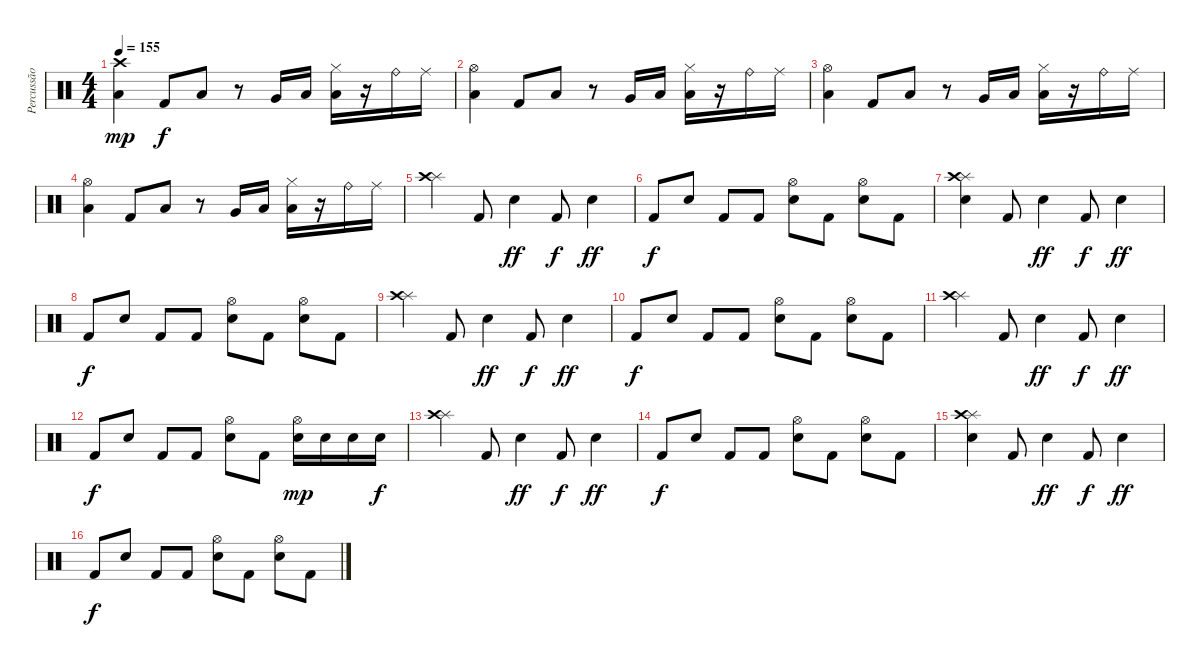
\track ("Percussão" "Percussão") {instrument percussion}
\staff {score}
\articulation defaults
\ts (4 4)
\tempo 155
\clef neutral
\ks c
("Crash high (hit)" "Low Tom (hit)").4{dy mp} "Kick (hit) 2".8{dy f} "Low Tom (hit)".8 r.8 "Very Low Tom (hit)".16 "Low Tom (hit)".16 ("Hi-Hat (closed)" "Low Tom (hit)").16 r.16 "Ride (bell)".16 "Ride (middle)".16 |
("Hi-Hat (open)" "Low Tom (hit)").4 "Kick (hit) 2".8 "Low Tom (hit)".8 r.8 "Very Low Tom (hit)".16 "Low Tom (hit)".16 ("Hi-Hat (closed)" "Low Tom (hit)").16 r.16 "Ride (bell)".16 "Ride (middle)".16 |
("Hi-Hat (open)" "Low Tom (hit)").4 "Kick (hit) 2".8 "Low Tom (hit)".8 r.8 "Very Low Tom (hit)".16 "Low Tom (hit)".16 ("Hi-Hat (closed)" "Low Tom (hit)").16 r.16 "Ride (bell)".16 "Ride (middle)".16 |
("Hi-Hat (open)" "Low Tom (hit)").4 "Kick (hit) 2".8 "Low Tom (hit)".8 r.8 "Very Low Tom (hit)".16 "Low Tom (hit)".16 ("Hi-Hat (closed)" "Low Tom (hit)").16 r.16 "Ride (bell)".16 "Ride (middle)".16 |
("Splash (hit)" "Crash high (hit)").4 "Kick (hit) 2".8 "Electric Snare (hit)".4{dy ff} "Kick (hit) 2".8{dy f} "Electric Snare (hit)".4{dy ff} |
"Kick (hit) 2".8{dy f} "Electric Snare (hit)".8 "Kick (hit) 2".8 "Kick (hit) 2".8 ("Hi-Hat (open)" "Electric Snare (hit)").8 "Kick (hit) 2".8 ("Hi-Hat (open)" "Electric Snare (hit)").8 "Kick (hit) 2".8 |
("Splash (hit)" "Crash high (hit)" "Electric Snare (hit)").4 "Kick (hit) 2".8 "Electric Snare (hit)".4{dy ff} "Kick (hit) 2".8{dy f} "Electric Snare (hit)".4{dy ff} |
"Kick (hit) 2".8{dy f} "Electric Snare (hit)".8 "Kick (hit) 2".8 "Kick (hit) 2".8 ("Hi-Hat (open)" "Electric Snare (hit)").8 "Kick (hit) 2".8 ("Hi-Hat (open)" "Electric Snare (hit)").8 "Kick (hit) 2".8 |
("Splash (hit)" "Crash high (hit)").4 "Kick (hit) 2".8 "Electric Snare (hit)".4{dy ff} "Kick (hit) 2".8{dy f} "Electric Snare (hit)".4{dy ff} |
"Kick (hit) 2".8{dy f} "Electric Snare (hit)".8 "Kick (hit) 2".8 "Kick (hit) 2".8 ("Hi-Hat (open)" "Electric Snare (hit)").8 "Kick (hit) 2".8 ("Hi-Hat (open)" "Electric Snare (hit)").8 "Kick (hit) 2".8 |
("Splash (hit)" "Crash high (hit)").4 "Kick (hit) 2".8 "Electric Snare (hit)".4{dy ff} "Kick (hit) 2".8{dy f} "Electric Snare (hit)".4{dy ff} |
"Kick (hit) 2".8{dy f} "Electric Snare (hit)".8 "Kick (hit) 2".8 "Kick (hit) 2".8 ("Hi-Hat (open)" "Electric Snare (hit)").8 "Kick (hit) 2".8 ("Hi-Hat (open)" "Electric Snare (hit)").16{dy mp} "Electric Snare (hit)".16 "Electric Snare (hit)".16 "Electric Snare (hit)".16{dy f} |
("Splash (hit)" "Crash high (hit)").4 "Kick (hit) 2".8 "Electric Snare (hit)".4{dy ff} "Kick (hit) 2".8{dy f} "Electric Snare (hit)".4{dy ff} |
"Kick (hit) 2".8{dy f} "Electric Snare (hit)".8 "Kick (hit) 2".8 "Kick (hit) 2".8 ("Hi-Hat (open)" "Electric Snare (hit)").8 "Kick (hit) 2".8 ("Hi-Hat (open)" "Electric Snare (hit)").8 "Kick (hit) 2".8 |
("Splash (hit)" "Crash high (hit)" "Electric Snare (hit)").4 "Kick (hit) 2".8 "Electric Snare (hit)".4{dy ff} "Kick (hit) 2".8{dy f} "Electric Snare (hit)".4{dy ff} |
"Kick (hit) 2".8{dy f} "Electric Snare (hit)".8 "Kick (hit) 2".8 "Kick (hit) 2".8 ("Hi-Hat (open)" "Electric Snare (hit)").8 "Kick (hit) 2".8 ("Hi-Hat (open)" "Electric Snare (hit)").8 "Kick (hit) 2".8
